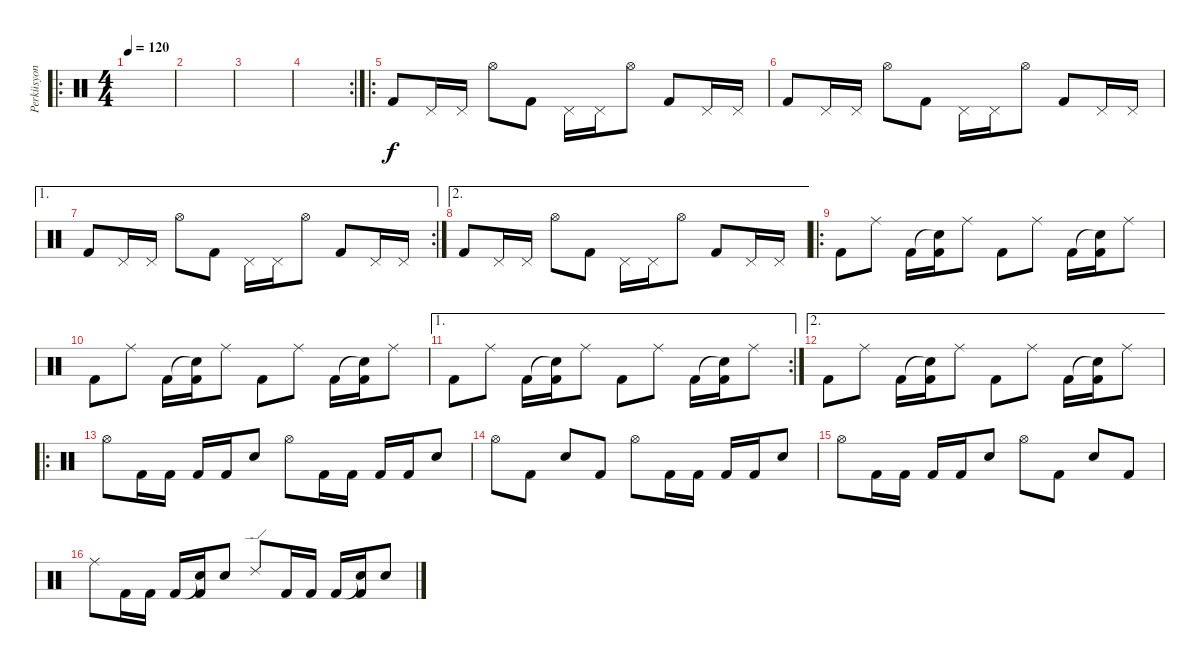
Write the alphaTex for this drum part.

\track ("Perküsyon" "Perküsyon") {instrument percussion}
\staff {score}
\articulation defaults
\ro
\ts (4 4)
\tempo 120
\clef neutral
\ks c
|
|
|
\rc 2
|
\ro "Kick (hit) 2".8 "Pedal Hi-Hat (hit)".16 "Pedal Hi-Hat (hit)".16 "Hi-Hat (open)".8 "Kick (hit) 2".8 "Pedal Hi-Hat (hit)".16 "Pedal Hi-Hat (hit)".16 "Hi-Hat (open)".8 "Kick (hit) 2".8 "Pedal Hi-Hat (hit)".16 "Pedal Hi-Hat (hit)".16
|
"Kick (hit) 2".8 "Pedal Hi-Hat (hit)".16 "Pedal Hi-Hat (hit)".16 "Hi-Hat (open)".8 "Kick (hit) 2".8 "Pedal Hi-Hat (hit)".16 "Pedal Hi-Hat (hit)".16 "Hi-Hat (open)".8 "Kick (hit) 2".8 "Pedal Hi-Hat (hit)".16 "Pedal Hi-Hat (hit)".16 |
\ae 1
\rc 2 "Kick (hit) 2".8 "Pedal Hi-Hat (hit)".16 "Pedal Hi-Hat (hit)".16 "Hi-Hat (open)".8 "Kick (hit) 2".8 "Pedal Hi-Hat (hit)".16 "Pedal Hi-Hat (hit)".16 "Hi-Hat (open)".8 "Kick (hit) 2".8 "Pedal Hi-Hat (hit)".16 "Pedal Hi-Hat (hit)".16
|
\ae 2 "Kick (hit) 2".8 "Pedal Hi-Hat (hit)".16 "Pedal Hi-Hat (hit)".16 "Hi-Hat (open)".8 "Kick (hit) 2".8 "Pedal Hi-Hat (hit)".16 "Pedal Hi-Hat (hit)".16 "Hi-Hat (open)".8 "Kick (hit) 2".8 "Pedal Hi-Hat (hit)".16 "Pedal Hi-Hat (hit)".16
|
\ro "Kick (hit) 2".8 "Ride (middle)".8 "Kick (hit) 2".16
("Snare (hit)"{t} "Kick (hit) 2").16 "Ride (middle)".8 "Kick (hit) 2".8 "Ride (middle)".8 "Kick (hit) 2".16 ("Snare (hit)"{t} "Kick (hit) 2").16 "Ride (middle)".8 |
"Kick (hit) 2".8 "Ride (middle)".8 "Kick (hit) 2".16 ("Snare (hit)"{t} "Kick (hit) 2").16 "Ride (middle)".8 "Kick (hit) 2".8 "Ride (middle)".8 "Kick (hit) 2".16 ("Snare (hit)"{t} "Kick (hit) 2").16 "Ride (middle)".8 |
\ae 1
\rc 2 "Kick (hit) 2".8 "Ride (middle)".8 "Kick (hit) 2".16
("Snare (hit)"{t} "Kick (hit) 2").16 "Ride (middle)".8 "Kick (hit) 2".8 "Ride (middle)".8 "Kick (hit) 2".16 ("Snare (hit)"{t} "Kick (hit) 2").16 "Ride (middle)".8 |
\ae 2 "Kick (hit) 2".8 "Ride (middle)".8 "Kick (hit) 2".16
("Snare (hit)"{t} "Kick (hit) 2").16 "Ride (middle)".8 "Kick (hit) 2".8 "Ride (middle)".8 "Kick (hit) 2".16 ("Snare (hit)"{t} "Kick (hit) 2").16 "Ride (middle)".8 |
\ro "Hi-Hat (open)".8 "Kick (hit) 2".16 "Kick (hit) 2".16 "Kick (hit) 2".16 "Kick (hit) 2".16 "Snare (hit) 2".8 "Hi-Hat (open)".8 "Kick (hit) 2".16 "Kick (hit) 2".16 "Kick (hit) 2".16 "Kick (hit) 2".16 "Snare (hit) 2".8
|
"Hi-Hat (open)".8 "Kick (hit) 2".8 "Snare (hit) 2".8 "Kick (hit) 2".8 "Hi-Hat (open)".8 "Kick (hit) 2".16 "Kick (hit) 2".16 "Kick (hit) 2".16 "Kick (hit) 2".16 "Snare (hit) 2".8 |
"Hi-Hat (open)".8 "Kick (hit) 2".16 "Kick (hit) 2".16 "Kick (hit) 2".16 "Kick (hit) 2".16 "Snare (hit) 2".8 "Hi-Hat (open)".8 "Kick (hit) 2".8 "Snare (hit) 2".8 "Kick (hit) 2".8 |
"Ride (middle)".8 "Kick (hit) 2".16 "Kick (hit) 2".16 "Kick (hit) 2".16 ("Snare (hit)"{t} "Kick (hit) 2").16 "Snare (hit) 2".8 "Ride (edge) 2".8 "Kick (hit) 2".16 "Kick (hit) 2".16 "Kick (hit) 2".16 ("Snare (hit)"{t} "Kick (hit) 2").16 "Snare (hit) 2".8
